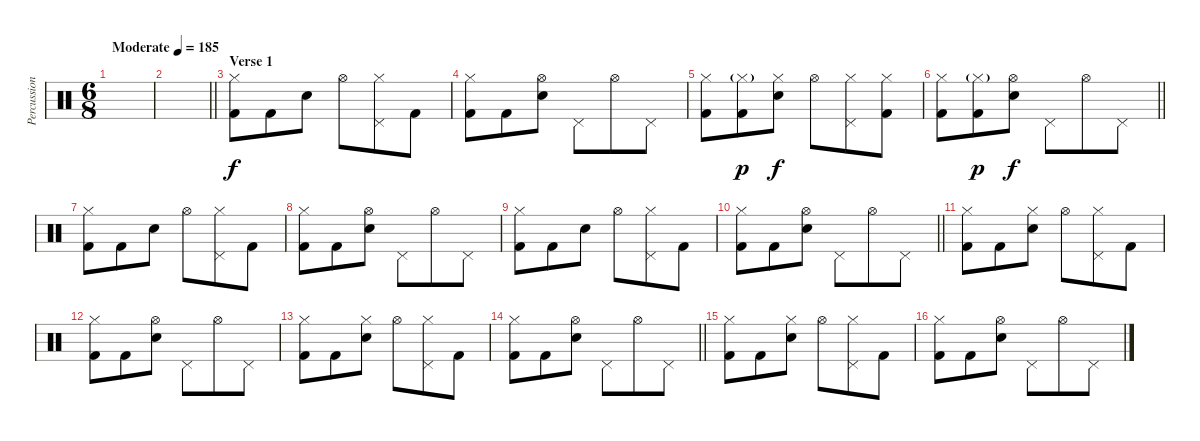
\track ("Percussion" "Percussion") {instrument percussion}
\staff {score}
\articulation defaults
\ts (6 8)
\tempo (185 "Moderate")
\clef neutral
\ks c
|
\barLineRight lightlight
|
\section ("" "Verse 1")
("Hi-Hat (closed)" "Kick (hit) 2").8 "Kick (hit) 2".8 "Snare (hit) 2".8 "Hi-Hat (open)".8 ("Hi-Hat (closed)" "Pedal Hi-Hat (hit)").8 "Kick (hit) 2".8 |
("Hi-Hat (closed)" "Kick (hit) 2").8 "Kick (hit) 2".8 ("Hi-Hat (open)" "Snare (hit) 2").8 "Pedal Hi-Hat (hit)".8 "Hi-Hat (open)".8 "Pedal Hi-Hat (hit)".8 |
("Hi-Hat (closed)" "Kick (hit) 2").8 ("Hi-Hat (closed)"{g} "Kick (hit) 2").8{dy p} ("Hi-Hat (closed)" "Snare (hit) 2").8{dy f} "Hi-Hat (open)".8 ("Hi-Hat (closed)" "Pedal Hi-Hat (hit)").8 ("Hi-Hat (closed)" "Kick (hit) 2").8 |
\barLineRight lightlight
("Hi-Hat (closed)" "Kick (hit) 2").8 ("Hi-Hat (closed)"{g} "Kick (hit) 2").8{dy p} ("Hi-Hat (open)" "Snare (hit) 2").8{dy f} "Pedal Hi-Hat (hit)".8 "Hi-Hat (open)".8 "Pedal Hi-Hat (hit)".8 |
("Hi-Hat (closed)" "Kick (hit) 2").8 "Kick (hit) 2".8 "Snare (hit) 2".8 "Hi-Hat (open)".8 ("Hi-Hat (closed)" "Pedal Hi-Hat (hit)").8 "Kick (hit) 2".8 |
("Hi-Hat (closed)" "Kick (hit) 2").8 "Kick (hit) 2".8 ("Hi-Hat (open)" "Snare (hit) 2").8 "Pedal Hi-Hat (hit)".8 "Hi-Hat (open)".8 "Pedal Hi-Hat (hit)".8 |
("Hi-Hat (closed)" "Kick (hit) 2").8 "Kick (hit) 2".8 "Snare (hit) 2".8 "Hi-Hat (open)".8 ("Hi-Hat (closed)" "Pedal Hi-Hat (hit)").8 "Kick (hit) 2".8 |
\barLineRight lightlight
("Hi-Hat (closed)" "Kick (hit) 2").8 "Kick (hit) 2".8 ("Hi-Hat (open)" "Snare (hit) 2").8 "Pedal Hi-Hat (hit)".8 "Hi-Hat (open)".8 "Pedal Hi-Hat (hit)".8 |
("Hi-Hat (closed)" "Kick (hit) 2").8 "Kick (hit) 2".8 ("Hi-Hat (closed)" "Snare (hit) 2").8 "Hi-Hat (open)".8 ("Hi-Hat (closed)" "Pedal Hi-Hat (hit)").8 "Kick (hit) 2".8 |
("Hi-Hat (closed)" "Kick (hit) 2").8 "Kick (hit) 2".8 ("Hi-Hat (open)" "Snare (hit) 2").8 "Pedal Hi-Hat (hit)".8 "Hi-Hat (open)".8 "Pedal Hi-Hat (hit)".8 |
("Hi-Hat (closed)" "Kick (hit) 2").8 "Kick (hit) 2".8 ("Hi-Hat (closed)" "Snare (hit) 2").8 "Hi-Hat (open)".8 ("Hi-Hat (closed)" "Pedal Hi-Hat (hit)").8 "Kick (hit) 2".8 |
\barLineRight lightlight
("Hi-Hat (closed)" "Kick (hit) 2").8 "Kick (hit) 2".8 ("Hi-Hat (open)" "Snare (hit) 2").8 "Pedal Hi-Hat (hit)".8 "Hi-Hat (open)".8 "Pedal Hi-Hat (hit)".8 |
("Hi-Hat (closed)" "Kick (hit) 2").8 "Kick (hit) 2".8 ("Hi-Hat (closed)" "Snare (hit) 2").8 "Hi-Hat (open)".8 ("Hi-Hat (closed)" "Pedal Hi-Hat (hit)").8 "Kick (hit) 2".8 |
("Hi-Hat (closed)" "Kick (hit) 2").8 "Kick (hit) 2".8 ("Hi-Hat (open)" "Snare (hit) 2").8 "Pedal Hi-Hat (hit)".8 "Hi-Hat (open)".8 "Pedal Hi-Hat (hit)".8
